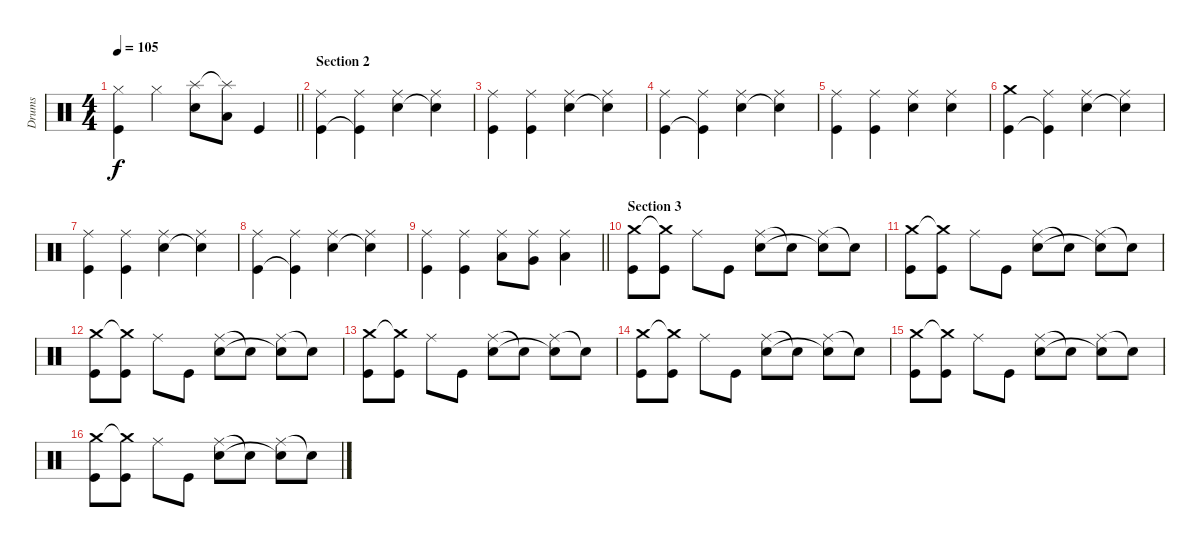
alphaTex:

\track ("Drums" "Drums") {instrument percussion}
\staff {score}
\articulation defaults
\ts (4 4)
\tempo 105
\clef neutral
\barLineRight lightlight
\ks c
("Hi-Hat (closed)" "Kick (hit)").4{dy f} "Hi-Hat (closed)".4 ("Splash (hit)" "Electric Snare (hit)").8 ("Splash (hit)"{t} "Low Tom (hit)").8 "Kick (hit)".4 |
\section ("" "Section 2")
("Ride (middle)" "Kick (hit)").4 ("Ride (middle)" "Kick (hit)"{t}).4 ("Ride (middle)" "Snare (hit) 2").4 ("Ride (middle)" "Snare (hit) 2"{t}).4 |
("Ride (middle)" "Kick (hit)").4 ("Ride (middle)" "Kick (hit)").4 ("Ride (middle)" "Snare (hit) 2").4 ("Ride (middle)" "Snare (hit) 2"{t}).4 |
("Ride (middle)" "Kick (hit)").4 ("Ride (middle)" "Kick (hit)"{t}).4 ("Ride (middle)" "Snare (hit) 2").4 ("Ride (middle)" "Snare (hit) 2"{t}).4 |
("Ride (middle)" "Kick (hit)").4 ("Ride (middle)" "Kick (hit)").4 ("Ride (middle)" "Snare (hit) 2").4 ("Ride (middle)" "Snare (hit) 2").4 |
("Crash medium (hit)" "Kick (hit)").4 ("Ride (middle)" "Kick (hit)"{t}).4 ("Ride (middle)" "Snare (hit) 2").4 ("Ride (middle)" "Snare (hit) 2"{t}).4 |
("Ride (middle)" "Kick (hit)").4 ("Ride (middle)" "Kick (hit)").4 ("Ride (middle)" "Snare (hit) 2").4 ("Ride (middle)" "Snare (hit) 2"{t}).4 |
("Ride (middle)" "Kick (hit)").4 ("Ride (middle)" "Kick (hit)"{t}).4 ("Ride (middle)" "Snare (hit) 2").4 ("Ride (middle)" "Snare (hit) 2"{t}).4 |
\barLineRight lightlight
("Ride (middle)" "Kick (hit)").4 ("Ride (middle)" "Kick (hit)").4 ("Ride (middle)" "Low Tom (hit)").8 ("Ride (middle)" "Very Low Tom (hit)").8 ("Ride (middle)" "Low Floor Tom (hit)").4 |
\section ("" "Section 3")
("Crash medium (hit)" "Kick (hit)").8 ("Crash medium (hit)"{t} "Kick (hit)").8 "Ride (middle)".8 "Kick (hit)".8 ("Ride (middle)" "Snare (hit) 2").8 "Snare (hit) 2"{t}.8 ("Ride (middle)" "Snare (hit) 2"{t}).8 "Snare (hit) 2"{t}.8 |
("Crash medium (hit)" "Kick (hit)").8 ("Crash medium (hit)"{t} "Kick (hit)").8 "Ride (middle)".8 "Kick (hit)".8 ("Ride (middle)" "Snare (hit) 2").8 "Snare (hit) 2"{t}.8 ("Ride (middle)" "Snare (hit) 2"{t}).8 "Snare (hit) 2"{t}.8 |
("Crash medium (hit)" "Kick (hit)").8 ("Crash medium (hit)"{t} "Kick (hit)").8 "Ride (middle)".8 "Kick (hit)".8 ("Ride (middle)" "Snare (hit) 2").8 "Snare (hit) 2"{t}.8 ("Ride (middle)" "Snare (hit) 2"{t}).8 "Snare (hit) 2"{t}.8 |
("Crash medium (hit)" "Kick (hit)").8 ("Crash medium (hit)"{t} "Kick (hit)").8 "Ride (middle)".8 "Kick (hit)".8 ("Ride (middle)" "Snare (hit) 2").8 "Snare (hit) 2"{t}.8 ("Ride (middle)" "Snare (hit) 2"{t}).8 "Snare (hit) 2"{t}.8 |
("Crash medium (hit)" "Kick (hit)").8 ("Crash medium (hit)"{t} "Kick (hit)").8 "Ride (middle)".8 "Kick (hit)".8 ("Ride (middle)" "Snare (hit) 2").8 "Snare (hit) 2"{t}.8 ("Ride (middle)" "Snare (hit) 2"{t}).8 "Snare (hit) 2"{t}.8 |
("Crash medium (hit)" "Kick (hit)").8 ("Crash medium (hit)"{t} "Kick (hit)").8 "Ride (middle)".8 "Kick (hit)".8 ("Ride (middle)" "Snare (hit) 2").8 "Snare (hit) 2"{t}.8 ("Ride (middle)" "Snare (hit) 2"{t}).8 "Snare (hit) 2"{t}.8 |
("Crash medium (hit)" "Kick (hit)").8 ("Crash medium (hit)"{t} "Kick (hit)").8 "Ride (middle)".8 "Kick (hit)".8 ("Ride (middle)" "Snare (hit) 2").8 "Snare (hit) 2"{t}.8 ("Ride (middle)" "Snare (hit) 2"{t}).8 "Snare (hit) 2"{t}.8
